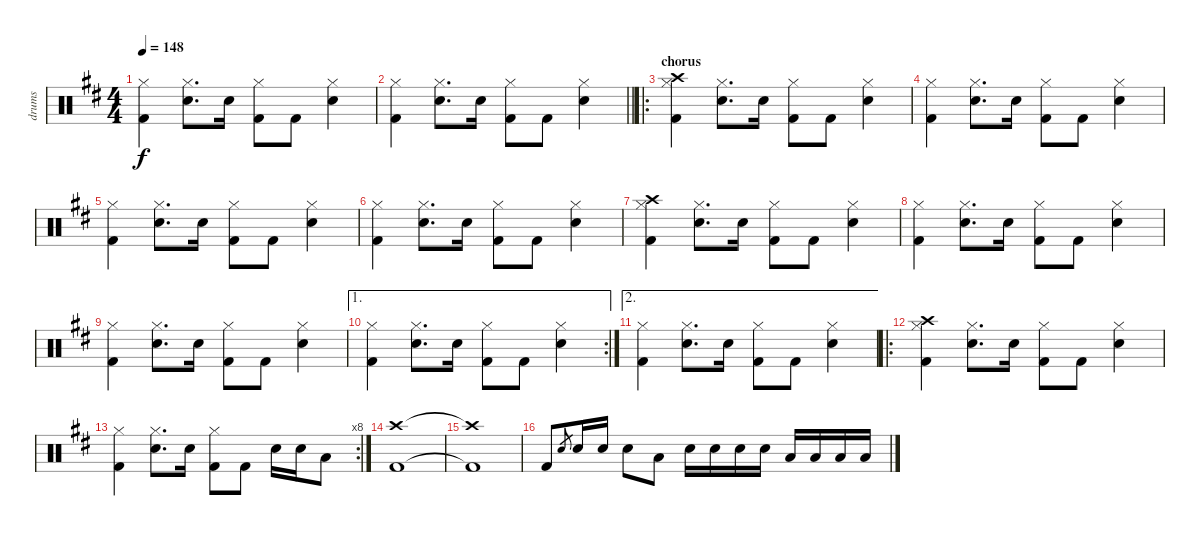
\track ("drums" "drums") {instrument percussion}
\staff {score}
\articulation defaults
\ts (4 4)
\tempo 148
\clef neutral
\ks d
("Hi-Hat (closed)" "Kick (hit) 2").4{dy f} ("Hi-Hat (closed)" "Electric Snare (hit)").8{d} "Electric Snare (hit)".16 ("Hi-Hat (closed)" "Kick (hit) 2").8 "Kick (hit) 2".8 ("Hi-Hat (closed)" "Electric Snare (hit)").4 |
\barLineRight lightlight
("Hi-Hat (closed)" "Kick (hit) 2").4 ("Hi-Hat (closed)" "Electric Snare (hit)").8{d} "Electric Snare (hit)".16 ("Hi-Hat (closed)" "Kick (hit) 2").8 "Kick (hit) 2".8 ("Hi-Hat (closed)" "Electric Snare (hit)").4 |
\ro
\section ("" "chorus")
("Hi-Hat (closed)" "Kick (hit) 2" "Crash high (hit)").4 ("Hi-Hat (closed)" "Electric Snare (hit)").8{d} "Electric Snare (hit)".16 ("Hi-Hat (closed)" "Kick (hit) 2").8 "Kick (hit) 2".8 ("Hi-Hat (closed)" "Electric Snare (hit)").4 |
("Hi-Hat (closed)" "Kick (hit) 2").4 ("Hi-Hat (closed)" "Electric Snare (hit)").8{d} "Electric Snare (hit)".16 ("Hi-Hat (closed)" "Kick (hit) 2").8 "Kick (hit) 2".8 ("Hi-Hat (closed)" "Electric Snare (hit)").4 |
("Hi-Hat (closed)" "Kick (hit) 2").4 ("Hi-Hat (closed)" "Electric Snare (hit)").8{d} "Electric Snare (hit)".16 ("Hi-Hat (closed)" "Kick (hit) 2").8 "Kick (hit) 2".8 ("Hi-Hat (closed)" "Electric Snare (hit)").4 |
("Hi-Hat (closed)" "Kick (hit) 2").4 ("Hi-Hat (closed)" "Electric Snare (hit)").8{d} "Electric Snare (hit)".16 ("Hi-Hat (closed)" "Kick (hit) 2").8 "Kick (hit) 2".8 ("Hi-Hat (closed)" "Electric Snare (hit)").4 |
("Hi-Hat (closed)" "Kick (hit) 2" "Crash high (hit)").4 ("Hi-Hat (closed)" "Electric Snare (hit)").8{d} "Electric Snare (hit)".16 ("Hi-Hat (closed)" "Kick (hit) 2").8 "Kick (hit) 2".8 ("Hi-Hat (closed)" "Electric Snare (hit)").4 |
("Hi-Hat (closed)" "Kick (hit) 2").4 ("Hi-Hat (closed)" "Electric Snare (hit)").8{d} "Electric Snare (hit)".16 ("Hi-Hat (closed)" "Kick (hit) 2").8 "Kick (hit) 2".8 ("Hi-Hat (closed)" "Electric Snare (hit)").4 |
("Hi-Hat (closed)" "Kick (hit) 2").4 ("Hi-Hat (closed)" "Electric Snare (hit)").8{d} "Electric Snare (hit)".16 ("Hi-Hat (closed)" "Kick (hit) 2").8 "Kick (hit) 2".8 ("Hi-Hat (closed)" "Electric Snare (hit)").4 |
\ae 1
\rc 2
("Hi-Hat (closed)" "Kick (hit) 2").4 ("Hi-Hat (closed)" "Electric Snare (hit)").8{d} "Electric Snare (hit)".16 ("Hi-Hat (closed)" "Kick (hit) 2").8 "Kick (hit) 2".8 ("Hi-Hat (closed)" "Electric Snare (hit)").4 |
\ae 2
("Hi-Hat (closed)" "Kick (hit) 2").4 ("Hi-Hat (closed)" "Electric Snare (hit)").8{d} "Electric Snare (hit)".16 ("Hi-Hat (closed)" "Kick (hit) 2").8 "Kick (hit) 2".8 ("Hi-Hat (closed)" "Electric Snare (hit)").4 |
\ro
("Hi-Hat (closed)" "Kick (hit) 2" "Crash high (hit)").4 ("Hi-Hat (closed)" "Electric Snare (hit)").8{d} "Electric Snare (hit)".16 ("Hi-Hat (closed)" "Kick (hit) 2").8 "Kick (hit) 2".8 ("Hi-Hat (closed)" "Electric Snare (hit)").4 |
\rc 8
("Hi-Hat (closed)" "Kick (hit) 2").4 ("Hi-Hat (closed)" "Electric Snare (hit)").8{d} "Electric Snare (hit)".16 ("Hi-Hat (closed)" "Kick (hit) 2").8 "Kick (hit) 2".8 "Electric Snare (hit)".16 "Electric Snare (hit)".16 "Low Tom (hit)".8 |
("Crash high (hit)" "Kick (hit) 2").1 |
("Crash high (hit)"{t} "Kick (hit) 2"{t}).1 |
"Kick (hit) 2".8 "Electric Snare (hit)".8{gr} "Electric Snare (hit)".16 "Electric Snare (hit)".16 "Electric Snare (hit)".8 "Low Tom (hit)".8 "Electric Snare (hit)".16 "Electric Snare (hit)".16 "Electric Snare (hit)".16 "Electric Snare (hit)".16 "Low Tom (hit)".16 "Low Tom (hit)".16 "Low Tom (hit)".16 "Low Tom (hit)".16
